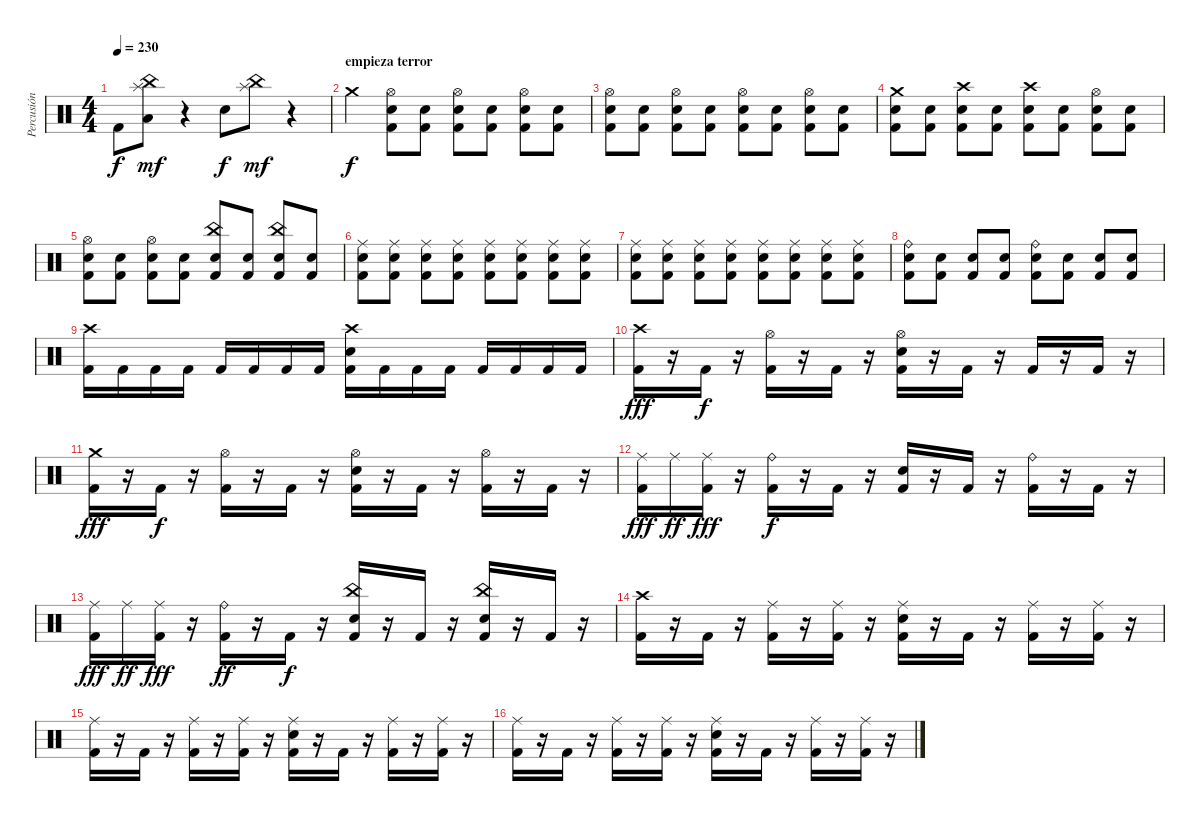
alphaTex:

\track ("Percusión" "Percusión") {instrument percussion}
\staff {score}
\articulation defaults
\ts (4 4)
\tempo 230
\clef neutral
\ks c "Kick (hit) 2".8{dy f}
("Splash (hit)" "China (hit)" "Low Floor Tom (hit)").8{dy mf} r.4 "Snare (hit) 2".8{dy f} ("Splash (hit)" "China (hit)").8{dy mf} r.4 |
\section ("" "empieza terror")
"Crash medium (hit)".4{dy f} ("Hi-Hat (open)" "Kick (hit) 2" "Snare (hit) 2").8 ("Kick (hit) 2" "Snare (hit) 2").8 ("Hi-Hat (open)" "Kick (hit) 2" "Snare (hit) 2").8 ("Kick (hit) 2" "Snare (hit) 2").8 ("Hi-Hat (open)" "Kick (hit) 2" "Snare (hit) 2").8 ("Kick (hit) 2" "Snare (hit) 2").8 |
("Hi-Hat (open)" "Kick (hit) 2" "Snare (hit) 2").8 ("Kick (hit) 2" "Snare (hit) 2").8 ("Hi-Hat (open)" "Kick (hit) 2" "Snare (hit) 2").8 ("Kick (hit) 2" "Snare (hit) 2").8 ("Hi-Hat (open)" "Kick (hit) 2" "Snare (hit) 2").8 ("Kick (hit) 2" "Snare (hit) 2").8 ("Hi-Hat (open)" "Kick (hit) 2" "Snare (hit) 2").8 ("Kick (hit) 2" "Snare (hit) 2").8 |
("Crash medium (hit)" "Kick (hit) 2" "Snare (hit) 2").8 ("Kick (hit) 2" "Snare (hit) 2").8 ("Crash high (hit)" "Kick (hit) 2" "Snare (hit) 2").8 ("Kick (hit) 2" "Snare (hit) 2").8 ("Crash high (hit)" "Kick (hit) 2" "Snare (hit) 2").8 ("Kick (hit) 2" "Snare (hit) 2").8 ("Hi-Hat (open)" "Kick (hit) 2" "Snare (hit) 2").8 ("Kick (hit) 2" "Snare (hit) 2").8 |
("Hi-Hat (open)" "Kick (hit) 2" "Snare (hit) 2").8 ("Kick (hit) 2" "Snare (hit) 2").8 ("Hi-Hat (open)" "Kick (hit) 2" "Snare (hit) 2").8 ("Kick (hit) 2" "Snare (hit) 2").8 ("China (hit)" "Kick (hit) 2" "Snare (hit) 2").8 ("Kick (hit) 2" "Snare (hit) 2").8 ("China (hit)" "Kick (hit) 2" "Snare (hit) 2").8 ("Kick (hit) 2" "Snare (hit) 2").8 |
("Ride (middle)" "Kick (hit) 2" "Snare (hit) 2").8 ("Ride (middle)" "Kick (hit) 2" "Snare (hit) 2").8 ("Ride (middle)" "Kick (hit) 2" "Snare (hit) 2").8 ("Ride (middle)" "Kick (hit) 2" "Snare (hit) 2").8 ("Ride (middle)" "Kick (hit) 2" "Snare (hit) 2").8 ("Ride (middle)" "Kick (hit) 2" "Snare (hit) 2").8 ("Ride (middle)" "Kick (hit) 2" "Snare (hit) 2").8 ("Ride (middle)" "Kick (hit) 2" "Snare (hit) 2").8 |
("Ride (middle)" "Kick (hit) 2" "Snare (hit) 2").8 ("Ride (middle)" "Kick (hit) 2" "Snare (hit) 2").8 ("Ride (middle)" "Kick (hit) 2" "Snare (hit) 2").8 ("Ride (middle)" "Kick (hit) 2" "Snare (hit) 2").8 ("Ride (middle)" "Kick (hit) 2" "Snare (hit) 2").8 ("Ride (middle)" "Kick (hit) 2" "Snare (hit) 2").8 ("Ride (middle)" "Kick (hit) 2" "Snare (hit) 2").8 ("Ride (middle)" "Kick (hit) 2" "Snare (hit) 2").8 |
("Ride (bell)" "Kick (hit) 2" "Snare (hit) 2").8 ("Kick (hit) 2" "Snare (hit) 2").8 ("Kick (hit) 2" "Snare (hit) 2").8 ("Kick (hit) 2" "Snare (hit) 2").8 ("Ride (bell)" "Kick (hit) 2" "Snare (hit) 2").8 ("Kick (hit) 2" "Snare (hit) 2").8 ("Kick (hit) 2" "Snare (hit) 2").8 ("Kick (hit) 2" "Snare (hit) 2").8 |
("Crash high (hit)" "Kick (hit) 2").16 "Kick (hit) 2".16 "Kick (hit) 2".16 "Kick (hit) 2".16 "Kick (hit) 2".16 "Kick (hit) 2".16 "Kick (hit) 2".16 "Kick (hit) 2".16 ("Crash high (hit)" "Kick (hit) 2" "Snare (hit) 2").16 "Kick (hit) 2".16 "Kick (hit) 2".16 "Kick (hit) 2".16 "Kick (hit) 2".16 "Kick (hit) 2".16 "Kick (hit) 2".16 "Kick (hit) 2".16 |
("Crash high (hit)" "Kick (hit) 2").16{dy fff} r.16 "Kick (hit) 2".16{dy f} r.16 ("Hi-Hat (open)" "Kick (hit) 2").16 r.16 "Kick (hit) 2".16 r.16 ("Hi-Hat (open)" "Kick (hit) 2" "Snare (hit) 2").16 r.16 "Kick (hit) 2".16 r.16 "Kick (hit) 2".16 r.16 "Kick (hit) 2".16 r.16 |
("Crash medium (hit)" "Kick (hit) 2").16{dy fff} r.16 "Kick (hit) 2".16{dy f} r.16 ("Hi-Hat (open)" "Kick (hit) 2").16 r.16 "Kick (hit) 2".16 r.16 ("Hi-Hat (open)" "Kick (hit) 2" "Snare (hit) 2").16 r.16 "Kick (hit) 2".16 r.16 ("Hi-Hat (open)" "Kick (hit) 2").16 r.16 "Kick (hit) 2".16 r.16 |
("Ride (middle)" "Kick (hit) 2").16{dy fff} "Ride (middle)".16{dy ff} ("Ride (middle)" "Kick (hit) 2").16{dy fff} r.16 ("Ride (bell)" "Kick (hit) 2").16{dy f} r.16 "Kick (hit) 2".16 r.16 ("Kick (hit) 2" "Snare (hit) 2").16 r.16 "Kick (hit) 2".16 r.16 ("Ride (bell)" "Kick (hit) 2").16 r.16 "Kick (hit) 2".16 r.16 |
("Ride (middle)" "Kick (hit) 2").16{dy fff} "Ride (middle)".16{dy ff} ("Ride (middle)" "Kick (hit) 2").16{dy fff} r.16 ("Ride (bell)" "Kick (hit) 2").16{dy ff} r.16 "Kick (hit) 2".16{dy f} r.16 ("China (hit)" "Kick (hit) 2" "Snare (hit) 2").16 r.16 "Kick (hit) 2".16 r.16 ("China (hit)" "Kick (hit) 2" "Snare (hit) 2").16 r.16 "Kick (hit) 2".16 r.16 |
("Crash high (hit)" "Kick (hit) 2").16 r.16 "Kick (hit) 2".16 r.16 ("Ride (middle)" "Kick (hit) 2").16 r.16 ("Ride (middle)" "Kick (hit) 2").16 r.16 ("Ride (middle)" "Kick (hit) 2" "Snare (hit) 2").16 r.16 "Kick (hit) 2".16 r.16 ("Ride (middle)" "Kick (hit) 2").16 r.16 ("Ride (middle)" "Kick (hit) 2").16 r.16 |
("Ride (middle)" "Kick (hit) 2").16 r.16 "Kick (hit) 2".16 r.16 ("Ride (middle)" "Kick (hit) 2").16 r.16 ("Ride (middle)" "Kick (hit) 2").16 r.16 ("Ride (middle)" "Kick (hit) 2" "Snare (hit) 2").16 r.16 "Kick (hit) 2".16 r.16 ("Ride (middle)" "Kick (hit) 2").16 r.16 ("Ride (middle)" "Kick (hit) 2").16 r.16 |
("Ride (middle)" "Kick (hit) 2").16 r.16 "Kick (hit) 2".16 r.16 ("Ride (middle)" "Kick (hit) 2").16 r.16 ("Ride (middle)" "Kick (hit) 2").16 r.16 ("Ride (middle)" "Kick (hit) 2" "Snare (hit) 2").16 r.16 "Kick (hit) 2".16 r.16 ("Ride (middle)" "Kick (hit) 2").16 r.16 ("Ride (middle)" "Kick (hit) 2").16 r.16
